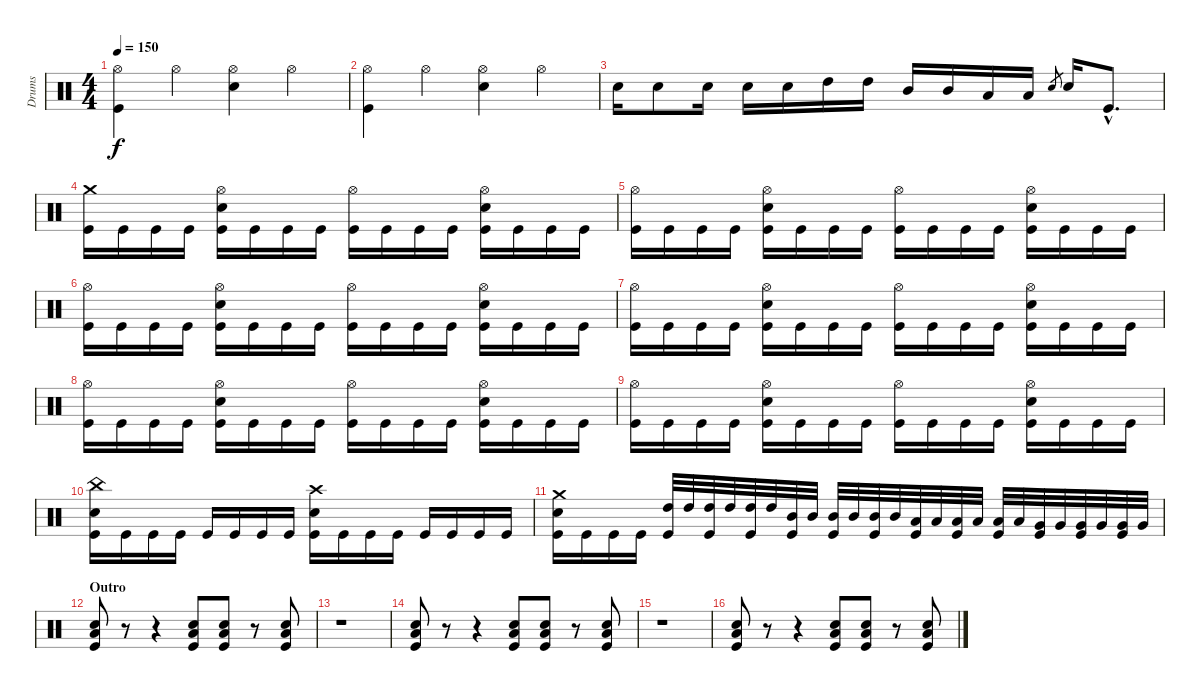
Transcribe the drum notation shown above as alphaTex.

\track ("Drums" "Drums") {instrument percussion}
\staff {score}
\articulation defaults
\ts (4 4)
\tempo 150
\clef neutral
\ks c
("Hi-Hat (open)" "Kick (hit)").4{dy f} "Hi-Hat (open)".4 ("Hi-Hat (open)" "Electric Snare (hit)").4 "Hi-Hat (open)".4 |
("Hi-Hat (open)" "Kick (hit)").4 "Hi-Hat (open)".4 ("Hi-Hat (open)" "Electric Snare (hit)").4 "Hi-Hat (open)".4 |
"Electric Snare (hit)".16 "Electric Snare (hit)".8 "Electric Snare (hit)".16 "Electric Snare (hit)".16 "Electric Snare (hit)".16 "High Tom (hit)".16 "High Tom (hit)".16 "Mid Tom (hit)".16 "Mid Tom (hit)".16 "Low Tom (hit)".16 "Low Tom (hit)".16 "Electric Snare (hit)".8{gr} "Electric Snare (hit)".16 "Kick (hit)"{hac}.8{d} |
("Crash medium (hit)" "Kick (hit)").16 "Kick (hit)".16 "Kick (hit)".16 "Kick (hit)".16 ("Hi-Hat (open)" "Electric Snare (hit)" "Kick (hit)").16 "Kick (hit)".16 "Kick (hit)".16 "Kick (hit)".16 ("Hi-Hat (open)" "Kick (hit)").16 "Kick (hit)".16 "Kick (hit)".16 "Kick (hit)".16 ("Hi-Hat (open)" "Electric Snare (hit)" "Kick (hit)").16 "Kick (hit)".16 "Kick (hit)".16 "Kick (hit)".16 |
("Hi-Hat (open)" "Kick (hit)").16 "Kick (hit)".16 "Kick (hit)".16 "Kick (hit)".16 ("Hi-Hat (open)" "Electric Snare (hit)" "Kick (hit)").16 "Kick (hit)".16 "Kick (hit)".16 "Kick (hit)".16 ("Hi-Hat (open)" "Kick (hit)").16 "Kick (hit)".16 "Kick (hit)".16 "Kick (hit)".16 ("Hi-Hat (open)" "Electric Snare (hit)" "Kick (hit)").16 "Kick (hit)".16 "Kick (hit)".16 "Kick (hit)".16 |
("Hi-Hat (open)" "Kick (hit)").16 "Kick (hit)".16 "Kick (hit)".16 "Kick (hit)".16 ("Hi-Hat (open)" "Electric Snare (hit)" "Kick (hit)").16 "Kick (hit)".16 "Kick (hit)".16 "Kick (hit)".16 ("Hi-Hat (open)" "Kick (hit)").16 "Kick (hit)".16 "Kick (hit)".16 "Kick (hit)".16 ("Hi-Hat (open)" "Electric Snare (hit)" "Kick (hit)").16 "Kick (hit)".16 "Kick (hit)".16 "Kick (hit)".16 |
("Hi-Hat (open)" "Kick (hit)").16 "Kick (hit)".16 "Kick (hit)".16 "Kick (hit)".16 ("Hi-Hat (open)" "Electric Snare (hit)" "Kick (hit)").16 "Kick (hit)".16 "Kick (hit)".16 "Kick (hit)".16 ("Hi-Hat (open)" "Kick (hit)").16 "Kick (hit)".16 "Kick (hit)".16 "Kick (hit)".16 ("Hi-Hat (open)" "Electric Snare (hit)" "Kick (hit)").16 "Kick (hit)".16 "Kick (hit)".16 "Kick (hit)".16 |
("Hi-Hat (open)" "Kick (hit)").16 "Kick (hit)".16 "Kick (hit)".16 "Kick (hit)".16 ("Hi-Hat (open)" "Electric Snare (hit)" "Kick (hit)").16 "Kick (hit)".16 "Kick (hit)".16 "Kick (hit)".16 ("Hi-Hat (open)" "Kick (hit)").16 "Kick (hit)".16 "Kick (hit)".16 "Kick (hit)".16 ("Hi-Hat (open)" "Electric Snare (hit)" "Kick (hit)").16 "Kick (hit)".16 "Kick (hit)".16 "Kick (hit)".16 |
("Hi-Hat (open)" "Kick (hit)").16 "Kick (hit)".16 "Kick (hit)".16 "Kick (hit)".16 ("Hi-Hat (open)" "Electric Snare (hit)" "Kick (hit)").16 "Kick (hit)".16 "Kick (hit)".16 "Kick (hit)".16 ("Hi-Hat (open)" "Kick (hit)").16 "Kick (hit)".16 "Kick (hit)".16 "Kick (hit)".16 ("Hi-Hat (open)" "Electric Snare (hit)" "Kick (hit)").16 "Kick (hit)".16 "Kick (hit)".16 "Kick (hit)".16 |
("China (hit)" "Electric Snare (hit)" "Kick (hit)").16 "Kick (hit)".16 "Kick (hit)".16 "Kick (hit)".16 "Kick (hit)".16 "Kick (hit)".16 "Kick (hit)".16 "Kick (hit)".16 ("Crash high (hit)" "Electric Snare (hit)" "Kick (hit)").16 "Kick (hit)".16 "Kick (hit)".16 "Kick (hit)".16 "Kick (hit)".16 "Kick (hit)".16 "Kick (hit)".16 "Kick (hit)".16 |
("Crash medium (hit)" "Electric Snare (hit)" "Kick (hit)").16 "Kick (hit)".16 "Kick (hit)".16 "Kick (hit)".16 ("High Tom (hit)" "Kick (hit)").32 "High Tom (hit)".32 ("High Tom (hit)" "Kick (hit)").32 "High Tom (hit)".32 ("High Tom (hit)" "Kick (hit)").32 "High Tom (hit)".32 ("Mid Tom (hit)" "Kick (hit)").32 "Mid Tom (hit)".32 ("Mid Tom (hit)" "Kick (hit)").32 "Mid Tom (hit)".32 ("Mid Tom (hit)" "Kick (hit)").32 "Mid Tom (hit)".32 ("Low Tom (hit)" "Kick (hit)").32 "Low Tom (hit)".32 ("Low Tom (hit)" "Kick (hit)").32 "Low Tom (hit)".32 ("Low Tom (hit)" "Kick (hit)").32 "Low Tom (hit)".32 ("Very Low Tom (hit)" "Kick (hit)").32 "Very Low Tom (hit)".32 ("Very Low Tom (hit)" "Kick (hit)").32 "Very Low Tom (hit)".32 ("Very Low Tom (hit)" "Kick (hit)").32 "Very Low Tom (hit)".32 |
\section ("" "Outro")
("Electric Snare (hit)" "Low Floor Tom (hit)" "Kick (hit)").8 r.8 r.4 ("Electric Snare (hit)" "Low Floor Tom (hit)" "Kick (hit)").8 ("Electric Snare (hit)" "Low Floor Tom (hit)" "Kick (hit)").8 r.8 ("Electric Snare (hit)" "Low Floor Tom (hit)" "Kick (hit)").8 |
r.1 |
("Electric Snare (hit)" "Low Floor Tom (hit)" "Kick (hit)").8 r.8 r.4 ("Electric Snare (hit)" "Low Floor Tom (hit)" "Kick (hit)").8 ("Electric Snare (hit)" "Low Floor Tom (hit)" "Kick (hit)").8 r.8 ("Electric Snare (hit)" "Low Floor Tom (hit)" "Kick (hit)").8 |
r.1 |
("Electric Snare (hit)" "Low Floor Tom (hit)" "Kick (hit)").8 r.8 r.4 ("Electric Snare (hit)" "Low Floor Tom (hit)" "Kick (hit)").8 ("Electric Snare (hit)" "Low Floor Tom (hit)" "Kick (hit)").8 r.8 ("Electric Snare (hit)" "Low Floor Tom (hit)" "Kick (hit)").8
